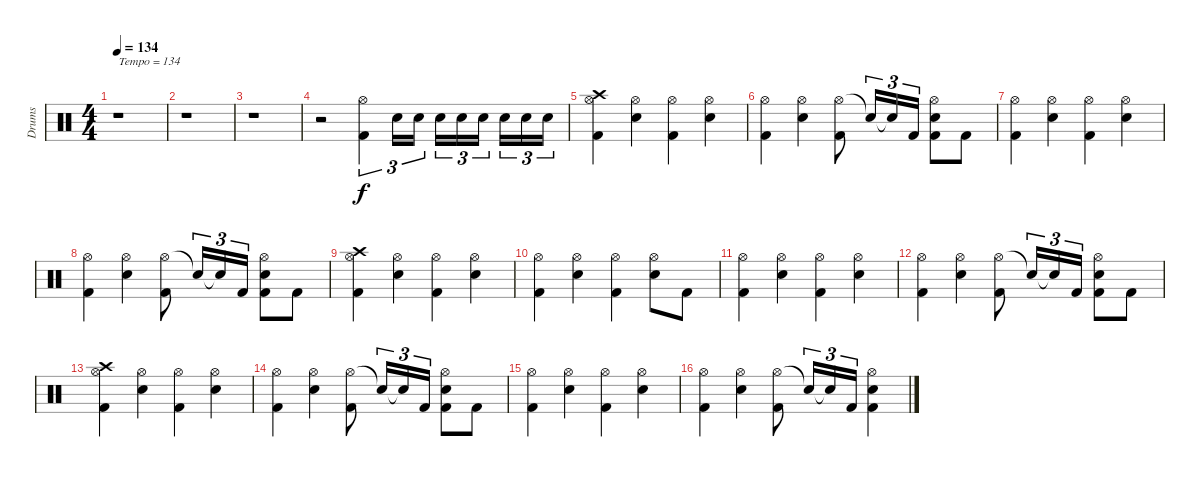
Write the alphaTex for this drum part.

\track ("Drums" "Drums") {instrument percussion}
\staff {score}
\articulation defaults
\ts (4 4)
\tempo 134
\clef neutral
\ks c
r.1{txt "Tempo = 134" dy f} |
r.1 |
r.1 |
r.2 ("Hi-Hat (open)" "Kick (hit) 2").4{tu (3 2)} "Electric Snare (hit)".16{tu (3 2)} "Electric Snare (hit)".16{tu (3 2)} "Electric Snare (hit)".16{tu (3 2)} "Electric Snare (hit)".16{tu (3 2)} "Electric Snare (hit)".16{tu (3 2)} "Electric Snare (hit)".16{tu (3 2)} "Electric Snare (hit)".16{tu (3 2)} "Electric Snare (hit)".16{tu (3 2)} |
("Crash high (hit)" "Hi-Hat (open)" "Kick (hit) 2").4 ("Hi-Hat (open)" "Electric Snare (hit)").4 ("Hi-Hat (open)" "Kick (hit) 2").4 ("Hi-Hat (open)" "Electric Snare (hit)").4 |
("Hi-Hat (open)" "Kick (hit) 2").4 ("Hi-Hat (open)" "Electric Snare (hit)").4 ("Hi-Hat (open)" "Kick (hit) 2").8 "Snare (hit)"{t}.16{tu (3 2)} "Snare (hit)"{t}.16{tu (3 2)} "Kick (hit) 2".16{tu (3 2)} ("Hi-Hat (open)" "Electric Snare (hit)" "Kick (hit) 2").8 "Kick (hit) 2".8 |
("Hi-Hat (open)" "Kick (hit) 2").4 ("Hi-Hat (open)" "Electric Snare (hit)").4 ("Hi-Hat (open)" "Kick (hit) 2").4 ("Hi-Hat (open)" "Electric Snare (hit)").4 |
("Hi-Hat (open)" "Kick (hit) 2").4 ("Hi-Hat (open)" "Electric Snare (hit)").4 ("Hi-Hat (open)" "Kick (hit) 2").8 "Snare (hit)"{t}.16{tu (3 2)} "Snare (hit)"{t}.16{tu (3 2)} "Kick (hit) 2".16{tu (3 2)} ("Hi-Hat (open)" "Electric Snare (hit)" "Kick (hit) 2").8 "Kick (hit) 2".8 |
("Crash high (hit)" "Hi-Hat (open)" "Kick (hit) 2").4 ("Hi-Hat (open)" "Electric Snare (hit)").4 ("Hi-Hat (open)" "Kick (hit) 2").4 ("Hi-Hat (open)" "Electric Snare (hit)").4 |
("Hi-Hat (open)" "Kick (hit) 2").4 ("Hi-Hat (open)" "Electric Snare (hit)").4 ("Hi-Hat (open)" "Kick (hit) 2").4 ("Hi-Hat (open)" "Electric Snare (hit)").8 "Kick (hit) 2".8 |
("Hi-Hat (open)" "Kick (hit) 2").4 ("Hi-Hat (open)" "Electric Snare (hit)").4 ("Hi-Hat (open)" "Kick (hit) 2").4 ("Hi-Hat (open)" "Electric Snare (hit)").4 |
("Hi-Hat (open)" "Kick (hit) 2").4 ("Hi-Hat (open)" "Electric Snare (hit)").4 ("Hi-Hat (open)" "Kick (hit) 2").8 "Snare (hit)"{t}.16{tu (3 2)} "Snare (hit)"{t}.16{tu (3 2)} "Kick (hit) 2".16{tu (3 2)} ("Hi-Hat (open)" "Electric Snare (hit)" "Kick (hit) 2").8 "Kick (hit) 2".8 |
("Crash high (hit)" "Hi-Hat (open)" "Kick (hit) 2").4 ("Hi-Hat (open)" "Electric Snare (hit)").4 ("Hi-Hat (open)" "Kick (hit) 2").4 ("Hi-Hat (open)" "Electric Snare (hit)").4 |
("Hi-Hat (open)" "Kick (hit) 2").4 ("Hi-Hat (open)" "Electric Snare (hit)").4 ("Hi-Hat (open)" "Kick (hit) 2").8 "Snare (hit)"{t}.16{tu (3 2)} "Snare (hit)"{t}.16{tu (3 2)} "Kick (hit) 2".16{tu (3 2)} ("Hi-Hat (open)" "Electric Snare (hit)" "Kick (hit) 2").8 "Kick (hit) 2".8 |
("Hi-Hat (open)" "Kick (hit) 2").4 ("Hi-Hat (open)" "Electric Snare (hit)").4 ("Hi-Hat (open)" "Kick (hit) 2").4 ("Hi-Hat (open)" "Electric Snare (hit)").4 |
("Hi-Hat (open)" "Kick (hit) 2").4 ("Hi-Hat (open)" "Electric Snare (hit)").4 ("Hi-Hat (open)" "Kick (hit) 2").8 "Snare (hit)"{t}.16{tu (3 2)} "Snare (hit)"{t}.16{tu (3 2)} "Kick (hit) 2".16{tu (3 2)} ("Hi-Hat (open)" "Electric Snare (hit)" "Kick (hit) 2").4
